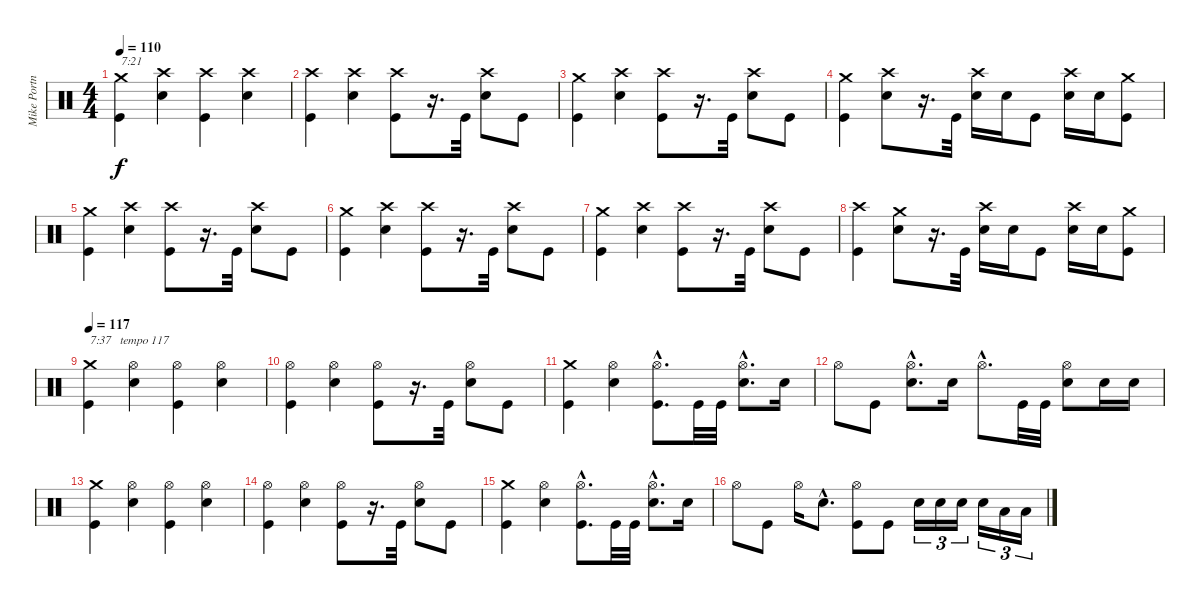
\track ("Mike Portnoy" "Mike Portn") {instrument percussion}
\staff {score}
\articulation defaults
\ts (4 4)
\tempo 110
\clef neutral
\ks c
("Crash medium (hit)" "Kick (hit)").4{txt "7:21" dy f} ("Crash high (hit)" "Snare (hit) 2").4 ("Crash high (hit)" "Kick (hit)").4 ("Crash high (hit)" "Snare (hit) 2").4 |
("Crash high (hit)" "Kick (hit)").4 ("Crash high (hit)" "Snare (hit) 2").4 ("Crash high (hit)" "Kick (hit)").8 r.16{d} "Kick (hit)".32 ("Crash high (hit)" "Snare (hit) 2").8 "Kick (hit)".8 |
("Crash medium (hit)" "Kick (hit)").4 ("Crash high (hit)" "Snare (hit) 2").4 ("Crash high (hit)" "Kick (hit)").8 r.16{d} "Kick (hit)".32 ("Crash high (hit)" "Snare (hit) 2").8 "Kick (hit)".8 |
("Crash medium (hit)" "Kick (hit)").4 ("Crash high (hit)" "Snare (hit) 2").8 r.16{d} "Kick (hit)".32 ("Crash high (hit)" "Snare (hit) 2").16 "Snare (hit) 2".16 "Kick (hit)".8 ("Crash high (hit)" "Snare (hit) 2").16 "Snare (hit) 2".16 ("Crash medium (hit)" "Kick (hit)").8 |
("Crash medium (hit)" "Kick (hit)").4 ("Crash high (hit)" "Snare (hit) 2").4 ("Crash high (hit)" "Kick (hit)").8 r.16{d} "Kick (hit)".32 ("Crash high (hit)" "Snare (hit) 2").8 "Kick (hit)".8 |
("Crash medium (hit)" "Kick (hit)").4 ("Crash high (hit)" "Snare (hit) 2").4 ("Crash high (hit)" "Kick (hit)").8 r.16{d} "Kick (hit)".32 ("Crash high (hit)" "Snare (hit) 2").8 "Kick (hit)".8 |
("Crash medium (hit)" "Kick (hit)").4 ("Crash high (hit)" "Snare (hit) 2").4 ("Crash high (hit)" "Kick (hit)").8 r.16{d} "Kick (hit)".32 ("Crash high (hit)" "Snare (hit) 2").8 "Kick (hit)".8 |
("Crash high (hit)" "Kick (hit)").4 ("Crash medium (hit)" "Snare (hit) 2").8 r.16{d} "Kick (hit)".32 ("Crash high (hit)" "Snare (hit) 2").16 "Snare (hit) 2".16 "Kick (hit)".8 ("Crash high (hit)" "Snare (hit) 2").16 "Snare (hit) 2".16 ("Crash medium (hit)" "Kick (hit)").8 |
\section ("" "")
\tempo 117
("Crash medium (hit)" "Kick (hit)").4{txt "7:37   tempo 117"} ("Hi-Hat (open)" "Snare (hit) 2").4 ("Hi-Hat (open)" "Kick (hit)").4 ("Hi-Hat (open)" "Snare (hit) 2").4 |
("Hi-Hat (open)" "Kick (hit)").4 ("Hi-Hat (open)" "Snare (hit) 2").4 ("Hi-Hat (open)" "Kick (hit)").8 r.16{d} "Kick (hit)".32 ("Hi-Hat (open)" "Snare (hit) 2").8 "Kick (hit)".8 |
("Crash medium (hit)" "Kick (hit)").4 ("Hi-Hat (open)" "Snare (hit) 2").4 ("Hi-Hat (open)"{hac} "Kick (hit)"{hac}).8{d} "Kick (hit)".32 "Kick (hit)".32 ("Hi-Hat (open)"{hac} "Snare (hit) 2"{hac}).8{d} "Snare (hit) 2".16 |
"Hi-Hat (open)".8 "Kick (hit)".8 ("Hi-Hat (open)"{hac} "Snare (hit) 2"{hac}).8{d} "Snare (hit) 2".16 "Hi-Hat (open)"{hac}.8{d} "Kick (hit)".32 "Kick (hit)".32 ("Hi-Hat (open)" "Snare (hit) 2").8 "Snare (hit) 2".16 "Snare (hit) 2".16 |
("Crash medium (hit)" "Kick (hit)").4 ("Hi-Hat (open)" "Snare (hit) 2").4 ("Hi-Hat (open)" "Kick (hit)").4 ("Hi-Hat (open)" "Snare (hit) 2").4 |
("Hi-Hat (open)" "Kick (hit)").4 ("Hi-Hat (open)" "Snare (hit) 2").4 ("Hi-Hat (open)" "Kick (hit)").8 r.16{d} "Kick (hit)".32 ("Hi-Hat (open)" "Snare (hit) 2").8 "Kick (hit)".8 |
("Crash medium (hit)" "Kick (hit)").4 ("Hi-Hat (open)" "Snare (hit) 2").4 ("Hi-Hat (open)"{hac} "Kick (hit)"{hac}).8{d} "Kick (hit)".32 "Kick (hit)".32 ("Hi-Hat (open)"{hac} "Snare (hit) 2"{hac}).8{d} "Snare (hit) 2".16 |
"Hi-Hat (open)".8 "Kick (hit)".8 "Hi-Hat (open)".16 "Snare (hit) 2"{hac}.8{d} ("Hi-Hat (open)" "Kick (hit)").8 "Kick (hit)".8 "Snare (hit) 2".16{tu (3 2)} "Snare (hit) 2".16{tu (3 2)} "Snare (hit) 2".16{tu (3 2)} "Snare (hit) 2".16{tu (3 2)} "Low Tom (hit)".16{tu (3 2)} "Low Tom (hit)".16{tu (3 2)}
